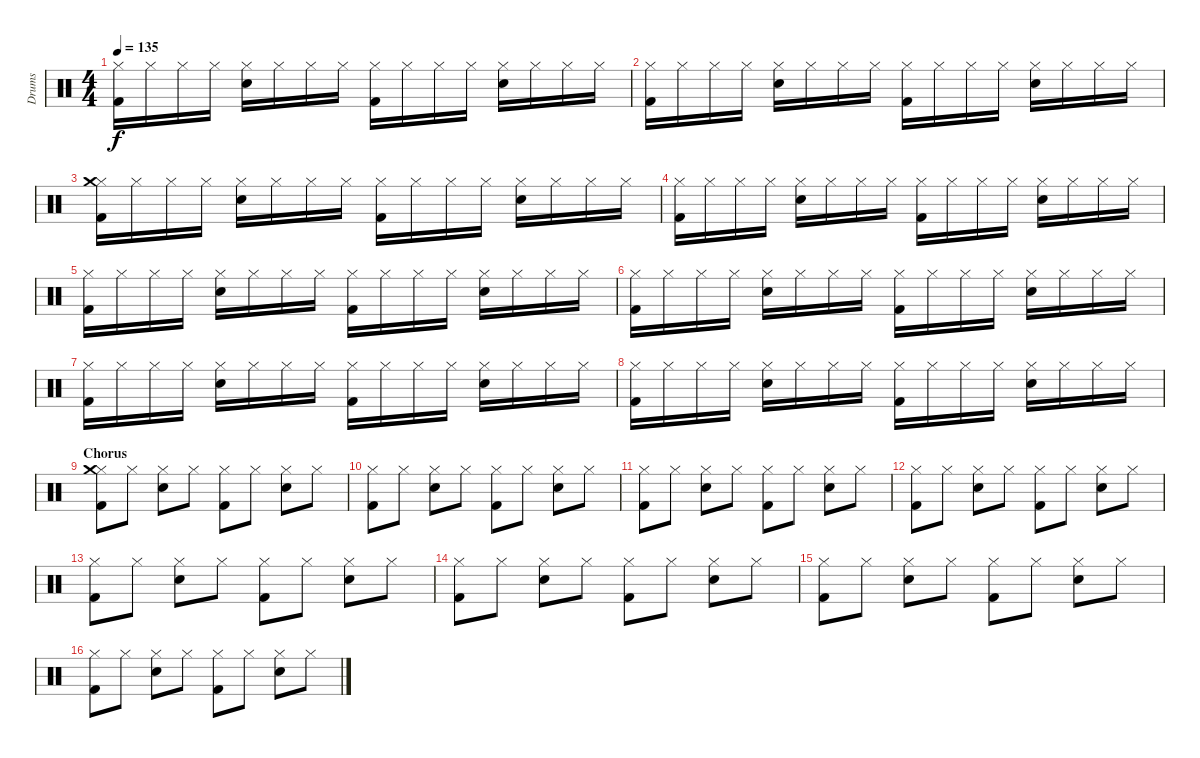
\track ("Drums" "Drums") {instrument percussion}
\staff {score}
\articulation defaults
\ts (4 4)
\tempo 135
\clef neutral
\ks c
("Hi-Hat (closed)" "Kick (hit) 2").16{dy f} "Hi-Hat (closed)".16 "Hi-Hat (closed)".16 "Hi-Hat (closed)".16 ("Hi-Hat (closed)" "Snare (hit) 2").16 "Hi-Hat (closed)".16 "Hi-Hat (closed)".16 "Hi-Hat (closed)".16 ("Hi-Hat (closed)" "Kick (hit) 2").16 "Hi-Hat (closed)".16 "Hi-Hat (closed)".16 "Hi-Hat (closed)".16 ("Hi-Hat (closed)" "Snare (hit) 2").16 "Hi-Hat (closed)".16 "Hi-Hat (closed)".16 "Hi-Hat (closed)".16 |
("Hi-Hat (closed)" "Kick (hit) 2").16 "Hi-Hat (closed)".16 "Hi-Hat (closed)".16 "Hi-Hat (closed)".16 ("Hi-Hat (closed)" "Snare (hit) 2").16 "Hi-Hat (closed)".16 "Hi-Hat (closed)".16 "Hi-Hat (closed)".16 ("Hi-Hat (closed)" "Kick (hit) 2").16 "Hi-Hat (closed)".16 "Hi-Hat (closed)".16 "Hi-Hat (closed)".16 ("Hi-Hat (closed)" "Snare (hit) 2").16 "Hi-Hat (closed)".16 "Hi-Hat (closed)".16 "Hi-Hat (closed)".16 |
("Hi-Hat (closed)" "Kick (hit) 2" "Crash medium (hit)").16 "Hi-Hat (closed)".16 "Hi-Hat (closed)".16 "Hi-Hat (closed)".16 ("Hi-Hat (closed)" "Snare (hit) 2").16 "Hi-Hat (closed)".16 "Hi-Hat (closed)".16 "Hi-Hat (closed)".16 ("Hi-Hat (closed)" "Kick (hit) 2").16 "Hi-Hat (closed)".16 "Hi-Hat (closed)".16 "Hi-Hat (closed)".16 ("Hi-Hat (closed)" "Snare (hit) 2").16 "Hi-Hat (closed)".16 "Hi-Hat (closed)".16 "Hi-Hat (closed)".16 |
("Hi-Hat (closed)" "Kick (hit) 2").16 "Hi-Hat (closed)".16 "Hi-Hat (closed)".16 "Hi-Hat (closed)".16 ("Hi-Hat (closed)" "Snare (hit) 2").16 "Hi-Hat (closed)".16 "Hi-Hat (closed)".16 "Hi-Hat (closed)".16 ("Hi-Hat (closed)" "Kick (hit) 2").16 "Hi-Hat (closed)".16 "Hi-Hat (closed)".16 "Hi-Hat (closed)".16 ("Hi-Hat (closed)" "Snare (hit) 2").16 "Hi-Hat (closed)".16 "Hi-Hat (closed)".16 "Hi-Hat (closed)".16 |
("Hi-Hat (closed)" "Kick (hit) 2").16 "Hi-Hat (closed)".16 "Hi-Hat (closed)".16 "Hi-Hat (closed)".16 ("Hi-Hat (closed)" "Snare (hit) 2").16 "Hi-Hat (closed)".16 "Hi-Hat (closed)".16 "Hi-Hat (closed)".16 ("Hi-Hat (closed)" "Kick (hit) 2").16 "Hi-Hat (closed)".16 "Hi-Hat (closed)".16 "Hi-Hat (closed)".16 ("Hi-Hat (closed)" "Snare (hit) 2").16 "Hi-Hat (closed)".16 "Hi-Hat (closed)".16 "Hi-Hat (closed)".16 |
("Hi-Hat (closed)" "Kick (hit) 2").16 "Hi-Hat (closed)".16 "Hi-Hat (closed)".16 "Hi-Hat (closed)".16 ("Hi-Hat (closed)" "Snare (hit) 2").16 "Hi-Hat (closed)".16 "Hi-Hat (closed)".16 "Hi-Hat (closed)".16 ("Hi-Hat (closed)" "Kick (hit) 2").16 "Hi-Hat (closed)".16 "Hi-Hat (closed)".16 "Hi-Hat (closed)".16 ("Hi-Hat (closed)" "Snare (hit) 2").16 "Hi-Hat (closed)".16 "Hi-Hat (closed)".16 "Hi-Hat (closed)".16 |
("Hi-Hat (closed)" "Kick (hit) 2").16 "Hi-Hat (closed)".16 "Hi-Hat (closed)".16 "Hi-Hat (closed)".16 ("Hi-Hat (closed)" "Snare (hit) 2").16 "Hi-Hat (closed)".16 "Hi-Hat (closed)".16 "Hi-Hat (closed)".16 ("Hi-Hat (closed)" "Kick (hit) 2").16 "Hi-Hat (closed)".16 "Hi-Hat (closed)".16 "Hi-Hat (closed)".16 ("Hi-Hat (closed)" "Snare (hit) 2").16 "Hi-Hat (closed)".16 "Hi-Hat (closed)".16 "Hi-Hat (closed)".16 |
("Hi-Hat (closed)" "Kick (hit) 2").16 "Hi-Hat (closed)".16 "Hi-Hat (closed)".16 "Hi-Hat (closed)".16 ("Hi-Hat (closed)" "Snare (hit) 2").16 "Hi-Hat (closed)".16 "Hi-Hat (closed)".16 "Hi-Hat (closed)".16 ("Hi-Hat (closed)" "Kick (hit) 2").16 "Hi-Hat (closed)".16 "Hi-Hat (closed)".16 "Hi-Hat (closed)".16 ("Hi-Hat (closed)" "Snare (hit) 2").16 "Hi-Hat (closed)".16 "Hi-Hat (closed)".16 "Hi-Hat (closed)".16 |
\section ("" "Chorus")
("Hi-Hat (closed)" "Kick (hit) 2" "Crash medium (hit)").8 "Hi-Hat (closed)".8 ("Hi-Hat (closed)" "Snare (hit) 2").8 "Hi-Hat (closed)".8 ("Hi-Hat (closed)" "Kick (hit) 2").8 "Hi-Hat (closed)".8 ("Hi-Hat (closed)" "Snare (hit) 2").8 "Hi-Hat (closed)".8 |
("Hi-Hat (closed)" "Kick (hit) 2").8 "Hi-Hat (closed)".8 ("Hi-Hat (closed)" "Snare (hit) 2").8 "Hi-Hat (closed)".8 ("Hi-Hat (closed)" "Kick (hit) 2").8 "Hi-Hat (closed)".8 ("Hi-Hat (closed)" "Snare (hit) 2").8 "Hi-Hat (closed)".8 |
("Hi-Hat (closed)" "Kick (hit) 2").8 "Hi-Hat (closed)".8 ("Hi-Hat (closed)" "Snare (hit) 2").8 "Hi-Hat (closed)".8 ("Hi-Hat (closed)" "Kick (hit) 2").8 "Hi-Hat (closed)".8 ("Hi-Hat (closed)" "Snare (hit) 2").8 "Hi-Hat (closed)".8 |
("Hi-Hat (closed)" "Kick (hit) 2").8 "Hi-Hat (closed)".8 ("Hi-Hat (closed)" "Snare (hit) 2").8 "Hi-Hat (closed)".8 ("Hi-Hat (closed)" "Kick (hit) 2").8 "Hi-Hat (closed)".8 ("Hi-Hat (closed)" "Snare (hit) 2").8 "Hi-Hat (closed)".8 |
("Hi-Hat (closed)" "Kick (hit) 2").8 "Hi-Hat (closed)".8 ("Hi-Hat (closed)" "Snare (hit) 2").8 "Hi-Hat (closed)".8 ("Hi-Hat (closed)" "Kick (hit) 2").8 "Hi-Hat (closed)".8 ("Hi-Hat (closed)" "Snare (hit) 2").8 "Hi-Hat (closed)".8 |
("Hi-Hat (closed)" "Kick (hit) 2").8 "Hi-Hat (closed)".8 ("Hi-Hat (closed)" "Snare (hit) 2").8 "Hi-Hat (closed)".8 ("Hi-Hat (closed)" "Kick (hit) 2").8 "Hi-Hat (closed)".8 ("Hi-Hat (closed)" "Snare (hit) 2").8 "Hi-Hat (closed)".8 |
("Hi-Hat (closed)" "Kick (hit) 2").8 "Hi-Hat (closed)".8 ("Hi-Hat (closed)" "Snare (hit) 2").8 "Hi-Hat (closed)".8 ("Hi-Hat (closed)" "Kick (hit) 2").8 "Hi-Hat (closed)".8 ("Hi-Hat (closed)" "Snare (hit) 2").8 "Hi-Hat (closed)".8 |
("Hi-Hat (closed)" "Kick (hit) 2").8 "Hi-Hat (closed)".8 ("Hi-Hat (closed)" "Snare (hit) 2").8 "Hi-Hat (closed)".8 ("Hi-Hat (closed)" "Kick (hit) 2").8 "Hi-Hat (closed)".8 ("Hi-Hat (closed)" "Snare (hit) 2").8 "Hi-Hat (closed)".8
